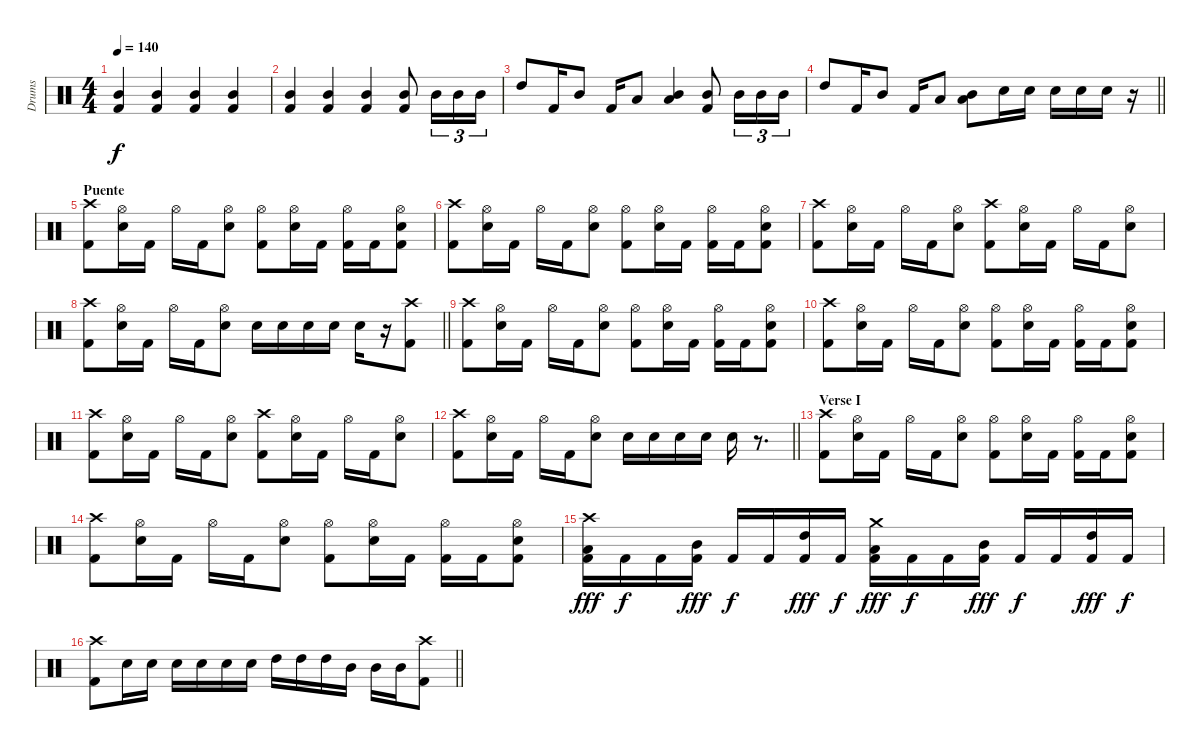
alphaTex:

\track ("Drums" "Drums") {instrument percussion}
\staff {score}
\articulation defaults
\ts (4 4)
\tempo 140
\clef neutral
\ks c
("Kick (hit) 2" "Mid Tom (hit)").4{dy f} ("Kick (hit) 2" "Mid Tom (hit)").4 ("Kick (hit) 2" "Mid Tom (hit)").4 ("Kick (hit) 2" "Mid Tom (hit)").4 |
("Kick (hit) 2" "Mid Tom (hit)").4 ("Kick (hit) 2" "Mid Tom (hit)").4 ("Kick (hit) 2" "Mid Tom (hit)").4 ("Kick (hit) 2" "Mid Tom (hit)").8 "Mid Tom (hit)".16{tu (3 2)} "Mid Tom (hit)".16{tu (3 2)} "Mid Tom (hit)".16{tu (3 2)} |
"High Tom (hit)".8 "Kick (hit) 2".16 "Mid Tom (hit)".8 "Kick (hit) 2".16 "Low Tom (hit)".8 ("Mid Tom (hit)" "Low Tom (hit)").4 ("Kick (hit) 2" "Mid Tom (hit)").8 "Mid Tom (hit)".16{tu (3 2)} "Mid Tom (hit)".16{tu (3 2)} "Mid Tom (hit)".16{tu (3 2)} |
\barLineRight lightlight "High Tom (hit)".8 "Kick (hit) 2".16 "Mid Tom (hit)".8 "Kick (hit) 2".16 "Low Tom (hit)".8
("Mid Tom (hit)" "Low Tom (hit)").8 "Snare (hit) 2".16 "Snare (hit) 2".16 "Snare (hit) 2".16 "Snare (hit) 2".16 "Snare (hit) 2".16 r.16 |
\section ("" "Puente")
("Crash high (hit)" "Kick (hit) 2").8 ("Hi-Hat (open)" "Snare (hit) 2").16 "Kick (hit) 2".16 "Hi-Hat (open)".16 "Kick (hit) 2".16 ("Hi-Hat (open)" "Snare (hit) 2").8 ("Hi-Hat (open)" "Kick (hit) 2").8 ("Hi-Hat (open)" "Snare (hit) 2").16 "Kick (hit) 2".16 ("Hi-Hat (open)" "Kick (hit) 2").16 "Kick (hit) 2".16 ("Hi-Hat (open)" "Snare (hit) 2" "Kick (hit) 2").8 |
("Crash high (hit)" "Kick (hit) 2").8 ("Hi-Hat (open)" "Snare (hit) 2").16 "Kick (hit) 2".16 "Hi-Hat (open)".16 "Kick (hit) 2".16 ("Hi-Hat (open)" "Snare (hit) 2").8 ("Hi-Hat (open)" "Kick (hit) 2").8 ("Hi-Hat (open)" "Snare (hit) 2").16 "Kick (hit) 2".16 ("Hi-Hat (open)" "Kick (hit) 2").16 "Kick (hit) 2".16 ("Hi-Hat (open)" "Snare (hit) 2" "Kick (hit) 2").8 |
("Crash high (hit)" "Kick (hit) 2").8 ("Hi-Hat (open)" "Snare (hit) 2").16 "Kick (hit) 2".16 "Hi-Hat (open)".16 "Kick (hit) 2".16 ("Hi-Hat (open)" "Snare (hit) 2").8 ("Crash high (hit)" "Kick (hit) 2").8 ("Hi-Hat (open)" "Snare (hit) 2").16 "Kick (hit) 2".16 "Hi-Hat (open)".16 "Kick (hit) 2".16 ("Hi-Hat (open)" "Snare (hit) 2").8 |
\barLineRight lightlight
("Crash high (hit)" "Kick (hit) 2").8 ("Hi-Hat (open)" "Snare (hit) 2").16 "Kick (hit) 2".16 "Hi-Hat (open)".16 "Kick (hit) 2".16 ("Hi-Hat (open)" "Snare (hit) 2").8 "Snare (hit) 2".16 "Snare (hit) 2".16 "Snare (hit) 2".16 "Snare (hit) 2".16 "Snare (hit) 2".16 r.16 ("Kick (hit) 2" "Crash high (hit)").8 |
("Crash high (hit)" "Kick (hit) 2").8 ("Hi-Hat (open)" "Snare (hit) 2").16 "Kick (hit) 2".16 "Hi-Hat (open)".16 "Kick (hit) 2".16 ("Hi-Hat (open)" "Snare (hit) 2").8 ("Hi-Hat (open)" "Kick (hit) 2").8 ("Hi-Hat (open)" "Snare (hit) 2").16 "Kick (hit) 2".16 ("Hi-Hat (open)" "Kick (hit) 2").16 "Kick (hit) 2".16 ("Hi-Hat (open)" "Snare (hit) 2" "Kick (hit) 2").8 |
("Crash high (hit)" "Kick (hit) 2").8 ("Hi-Hat (open)" "Snare (hit) 2").16 "Kick (hit) 2".16 "Hi-Hat (open)".16 "Kick (hit) 2".16 ("Hi-Hat (open)" "Snare (hit) 2").8 ("Hi-Hat (open)" "Kick (hit) 2").8 ("Hi-Hat (open)" "Snare (hit) 2").16 "Kick (hit) 2".16 ("Hi-Hat (open)" "Kick (hit) 2").16 "Kick (hit) 2".16 ("Hi-Hat (open)" "Snare (hit) 2" "Kick (hit) 2").8 |
("Crash high (hit)" "Kick (hit) 2").8 ("Hi-Hat (open)" "Snare (hit) 2").16 "Kick (hit) 2".16 "Hi-Hat (open)".16 "Kick (hit) 2".16 ("Hi-Hat (open)" "Snare (hit) 2").8 ("Crash high (hit)" "Kick (hit) 2").8 ("Hi-Hat (open)" "Snare (hit) 2").16 "Kick (hit) 2".16 "Hi-Hat (open)".16 "Kick (hit) 2".16 ("Hi-Hat (open)" "Snare (hit) 2").8 |
\barLineRight lightlight
("Crash high (hit)" "Kick (hit) 2").8 ("Hi-Hat (open)" "Snare (hit) 2").16 "Kick (hit) 2".16 "Hi-Hat (open)".16 "Kick (hit) 2".16 ("Hi-Hat (open)" "Snare (hit) 2").8 "Snare (hit) 2".16 "Snare (hit) 2".16 "Snare (hit) 2".16 "Snare (hit) 2".16 "Snare (hit) 2".16 r.8{d} |
\section ("" "Verse I")
("Crash high (hit)" "Kick (hit) 2").8 ("Hi-Hat (open)" "Snare (hit) 2").16 "Kick (hit) 2".16 "Hi-Hat (open)".16 "Kick (hit) 2".16 ("Hi-Hat (open)" "Snare (hit) 2").8 ("Hi-Hat (open)" "Kick (hit) 2").8 ("Hi-Hat (open)" "Snare (hit) 2").16 "Kick (hit) 2".16 ("Hi-Hat (open)" "Kick (hit) 2").16 "Kick (hit) 2".16 ("Hi-Hat (open)" "Snare (hit) 2" "Kick (hit) 2").8 |
("Crash high (hit)" "Kick (hit) 2").8 ("Hi-Hat (open)" "Snare (hit) 2").16 "Kick (hit) 2".16 "Hi-Hat (open)".16 "Kick (hit) 2".16 ("Hi-Hat (open)" "Snare (hit) 2").8 ("Hi-Hat (open)" "Kick (hit) 2").8 ("Hi-Hat (open)" "Snare (hit) 2").16 "Kick (hit) 2".16 ("Hi-Hat (open)" "Kick (hit) 2").16 "Kick (hit) 2".16 ("Hi-Hat (open)" "Snare (hit) 2" "Kick (hit) 2").8 |
("Crash high (hit)" "Low Tom (hit)" "Kick (hit) 2").16{dy fff} "Kick (hit) 2".16{dy f} "Kick (hit) 2".16 ("Mid Tom (hit)" "Kick (hit) 2").16{dy fff} "Kick (hit) 2".16{dy f} "Kick (hit) 2".16 ("High Tom (hit)" "Kick (hit) 2").16{dy fff} "Kick (hit) 2".16{dy f} ("Crash medium (hit)" "Low Tom (hit)" "Kick (hit) 2").16{dy fff} "Kick (hit) 2".16{dy f} "Kick (hit) 2".16 ("Mid Tom (hit)" "Kick (hit) 2").16{dy fff} "Kick (hit) 2".16{dy f} "Kick (hit) 2".16 ("High Tom (hit)" "Kick (hit) 2").16{dy fff} "Kick (hit) 2".16{dy f} |
\barLineRight lightlight
("Crash high (hit)" "Kick (hit) 2").8 "Snare (hit) 2".16 "Snare (hit) 2".16 "Snare (hit) 2".16 "Snare (hit) 2".16 "Snare (hit) 2".16 "Snare (hit) 2".16 "High Tom (hit)".16 "High Tom (hit)".16 "High Tom (hit)".16 "Mid Tom (hit)".16 "Mid Tom (hit)".16 "Mid Tom (hit)".16 ("Crash high (hit)" "Kick (hit) 2").8
